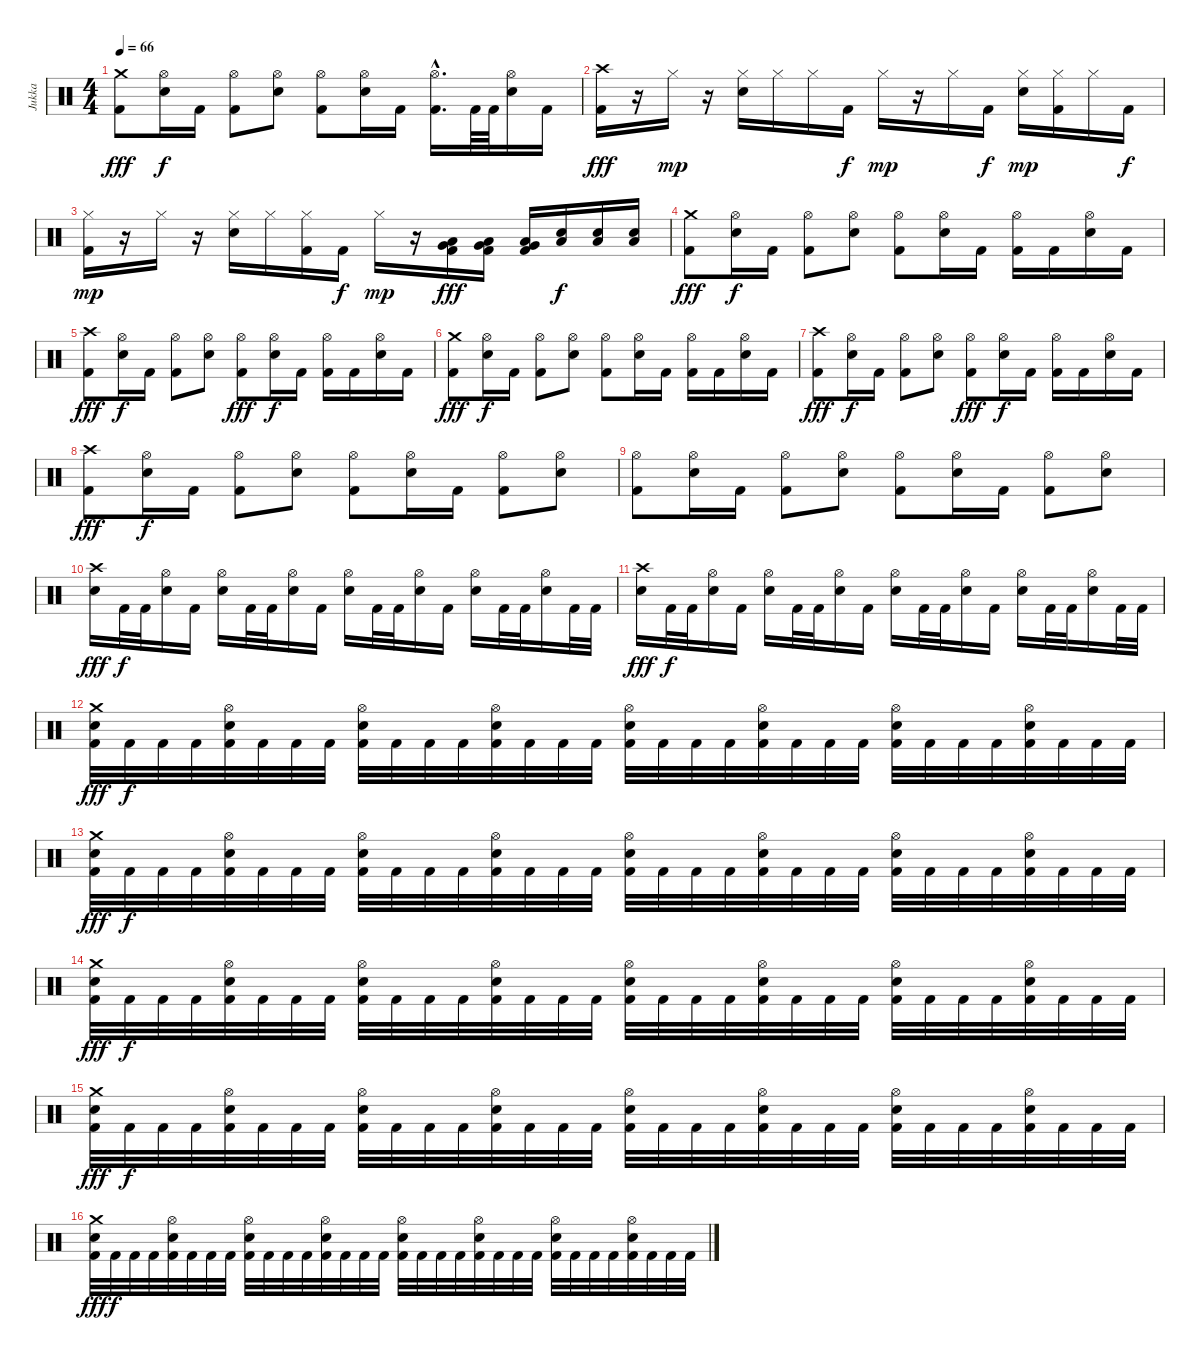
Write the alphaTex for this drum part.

\track ("Jukka" "Jukka") {instrument percussion}
\staff {score}
\articulation defaults
\ts (4 4)
\tempo 66
\clef neutral
\ks c
("Kick (hit) 2" "Crash medium (hit)").8{dy fff} ("Electric Snare (hit)" "Hi-Hat (open)").16{dy f} "Kick (hit) 2".16 ("Kick (hit) 2" "Hi-Hat (open)").8 ("Electric Snare (hit)" "Hi-Hat (open)").8 ("Kick (hit) 2" "Hi-Hat (open)").8 ("Electric Snare (hit)" "Hi-Hat (open)").16 "Kick (hit) 2".16 ("Kick (hit) 2"{hac} "Hi-Hat (open)"{hac}).16{d} "Kick (hit) 2".64 "Kick (hit) 2".64 ("Electric Snare (hit)" "Hi-Hat (open)").16 "Kick (hit) 2".16 |
("Kick (hit) 2" "Crash high (hit)").16{dy fff} r.16 "Hi-Hat (closed)".16{dy mp} r.16 ("Electric Snare (hit)" "Hi-Hat (closed)").16 "Hi-Hat (closed)".16 "Hi-Hat (closed)".16 "Kick (hit) 2".16{dy f} "Hi-Hat (closed)".16{dy mp} r.16 "Hi-Hat (closed)".16 "Kick (hit) 2".16{dy f} ("Electric Snare (hit)" "Hi-Hat (closed)").16{dy mp} ("Kick (hit) 2" "Hi-Hat (closed)").16 "Hi-Hat (closed)".16 "Kick (hit) 2".16{dy f} |
("Kick (hit) 2" "Hi-Hat (closed)").16{dy mp} r.16 "Hi-Hat (closed)".16 r.16 ("Electric Snare (hit)" "Hi-Hat (closed)").16 "Hi-Hat (closed)".16 ("Kick (hit) 2" "Hi-Hat (closed)").16 "Kick (hit) 2".16{dy f} "Hi-Hat (closed)".16{dy mp} r.16 ("Kick (hit) 2" "Very Low Tom (hit)" "Low Floor Tom (hit)").16{dy fff} ("Kick (hit) 2" "Very Low Tom (hit)" "Low Floor Tom (hit)").16 ("Kick (hit) 2" "Very Low Tom (hit)" "Low Floor Tom (hit)").16 ("Electric Snare (hit)" "Low Floor Tom (hit)").16{dy f} ("Electric Snare (hit)" "Low Floor Tom (hit)").16 ("Electric Snare (hit)" "Low Floor Tom (hit)").16 |
("Kick (hit) 2" "Crash medium (hit)").8{dy fff} ("Electric Snare (hit)" "Hi-Hat (open)").16{dy f} "Kick (hit) 2".16 ("Kick (hit) 2" "Hi-Hat (open)").8 ("Electric Snare (hit)" "Hi-Hat (open)").8 ("Kick (hit) 2" "Hi-Hat (open)").8 ("Electric Snare (hit)" "Hi-Hat (open)").16 "Kick (hit) 2".16 ("Kick (hit) 2" "Hi-Hat (open)").16 "Kick (hit) 2".16 ("Electric Snare (hit)" "Hi-Hat (open)").16 "Kick (hit) 2".16 |
("Kick (hit) 2" "Crash high (hit)").8{dy fff} ("Electric Snare (hit)" "Hi-Hat (open)").16{dy f} "Kick (hit) 2".16 ("Kick (hit) 2" "Hi-Hat (open)").8 ("Electric Snare (hit)" "Hi-Hat (open)").8 ("Kick (hit) 2" "Hi-Hat (open)").8{dy fff} ("Electric Snare (hit)" "Hi-Hat (open)").16{dy f} "Kick (hit) 2".16 ("Kick (hit) 2" "Hi-Hat (open)").16 "Kick (hit) 2".16 ("Electric Snare (hit)" "Hi-Hat (open)").16 "Kick (hit) 2".16 |
("Kick (hit) 2" "Crash medium (hit)").8{dy fff} ("Electric Snare (hit)" "Hi-Hat (open)").16{dy f} "Kick (hit) 2".16 ("Kick (hit) 2" "Hi-Hat (open)").8 ("Electric Snare (hit)" "Hi-Hat (open)").8 ("Kick (hit) 2" "Hi-Hat (open)").8 ("Electric Snare (hit)" "Hi-Hat (open)").16 "Kick (hit) 2".16 ("Kick (hit) 2" "Hi-Hat (open)").16 "Kick (hit) 2".16 ("Electric Snare (hit)" "Hi-Hat (open)").16 "Kick (hit) 2".16 |
("Kick (hit) 2" "Crash high (hit)").8{dy fff} ("Electric Snare (hit)" "Hi-Hat (open)").16{dy f} "Kick (hit) 2".16 ("Kick (hit) 2" "Hi-Hat (open)").8 ("Electric Snare (hit)" "Hi-Hat (open)").8 ("Kick (hit) 2" "Hi-Hat (open)").8{dy fff} ("Electric Snare (hit)" "Hi-Hat (open)").16{dy f} "Kick (hit) 2".16 ("Kick (hit) 2" "Hi-Hat (open)").16 "Kick (hit) 2".16 ("Electric Snare (hit)" "Hi-Hat (open)").16 "Kick (hit) 2".16 |
("Kick (hit) 2" "Crash high (hit)").8{dy fff} ("Electric Snare (hit)" "Hi-Hat (open)").16{dy f} "Kick (hit) 2".16 ("Kick (hit) 2" "Hi-Hat (open)").8 ("Electric Snare (hit)" "Hi-Hat (open)").8 ("Kick (hit) 2" "Hi-Hat (open)").8 ("Electric Snare (hit)" "Hi-Hat (open)").16 "Kick (hit) 2".16 ("Kick (hit) 2" "Hi-Hat (open)").8 ("Electric Snare (hit)" "Hi-Hat (open)").8 |
("Kick (hit) 2" "Hi-Hat (open)").8 ("Electric Snare (hit)" "Hi-Hat (open)").16 "Kick (hit) 2".16 ("Kick (hit) 2" "Hi-Hat (open)").8 ("Electric Snare (hit)" "Hi-Hat (open)").8 ("Kick (hit) 2" "Hi-Hat (open)").8 ("Electric Snare (hit)" "Hi-Hat (open)").16 "Kick (hit) 2".16 ("Kick (hit) 2" "Hi-Hat (open)").8 ("Electric Snare (hit)" "Hi-Hat (open)").8 |
("Electric Snare (hit)" "Crash high (hit)").16{dy fff} "Kick (hit) 2".32{dy f} "Kick (hit) 2".32 ("Electric Snare (hit)" "Hi-Hat (open)").16 "Kick (hit) 2".16 ("Electric Snare (hit)" "Hi-Hat (open)").16 "Kick (hit) 2".32 "Kick (hit) 2".32 ("Electric Snare (hit)" "Hi-Hat (open)").16 "Kick (hit) 2".16 ("Electric Snare (hit)" "Hi-Hat (open)").16 "Kick (hit) 2".32 "Kick (hit) 2".32 ("Electric Snare (hit)" "Hi-Hat (open)").16 "Kick (hit) 2".16 ("Electric Snare (hit)" "Hi-Hat (open)").16 "Kick (hit) 2".32 "Kick (hit) 2".32 ("Electric Snare (hit)" "Hi-Hat (open)").16 "Kick (hit) 2".32 "Kick (hit) 2".32 |
("Electric Snare (hit)" "Crash high (hit)").16{dy fff} "Kick (hit) 2".32{dy f} "Kick (hit) 2".32 ("Electric Snare (hit)" "Hi-Hat (open)").16 "Kick (hit) 2".16 ("Electric Snare (hit)" "Hi-Hat (open)").16 "Kick (hit) 2".32 "Kick (hit) 2".32 ("Electric Snare (hit)" "Hi-Hat (open)").16 "Kick (hit) 2".16 ("Electric Snare (hit)" "Hi-Hat (open)").16 "Kick (hit) 2".32 "Kick (hit) 2".32 ("Electric Snare (hit)" "Hi-Hat (open)").16 "Kick (hit) 2".16 ("Electric Snare (hit)" "Hi-Hat (open)").16 "Kick (hit) 2".32 "Kick (hit) 2".32 ("Electric Snare (hit)" "Hi-Hat (open)").16 "Kick (hit) 2".32 "Kick (hit) 2".32 |
("Kick (hit) 2" "Electric Snare (hit)" "Crash medium (hit)").32{dy fff} "Kick (hit) 2".32{dy f} "Kick (hit) 2".32 "Kick (hit) 2".32 ("Kick (hit) 2" "Electric Snare (hit)" "Hi-Hat (open)").32 "Kick (hit) 2".32 "Kick (hit) 2".32 "Kick (hit) 2".32 ("Kick (hit) 2" "Electric Snare (hit)" "Hi-Hat (open)").32 "Kick (hit) 2".32 "Kick (hit) 2".32 "Kick (hit) 2".32 ("Kick (hit) 2" "Electric Snare (hit)" "Hi-Hat (open)").32 "Kick (hit) 2".32 "Kick (hit) 2".32 "Kick (hit) 2".32 ("Kick (hit) 2" "Electric Snare (hit)" "Hi-Hat (open)").32 "Kick (hit) 2".32 "Kick (hit) 2".32 "Kick (hit) 2".32 ("Kick (hit) 2" "Electric Snare (hit)" "Hi-Hat (open)").32 "Kick (hit) 2".32 "Kick (hit) 2".32 "Kick (hit) 2".32 ("Kick (hit) 2" "Electric Snare (hit)" "Hi-Hat (open)").32 "Kick (hit) 2".32 "Kick (hit) 2".32 "Kick (hit) 2".32 ("Kick (hit) 2" "Electric Snare (hit)" "Hi-Hat (open)").32 "Kick (hit) 2".32 "Kick (hit) 2".32 "Kick (hit) 2".32 |
("Kick (hit) 2" "Electric Snare (hit)" "Crash medium (hit)").32{dy fff} "Kick (hit) 2".32{dy f} "Kick (hit) 2".32 "Kick (hit) 2".32 ("Kick (hit) 2" "Electric Snare (hit)" "Hi-Hat (open)").32 "Kick (hit) 2".32 "Kick (hit) 2".32 "Kick (hit) 2".32 ("Kick (hit) 2" "Electric Snare (hit)" "Hi-Hat (open)").32 "Kick (hit) 2".32 "Kick (hit) 2".32 "Kick (hit) 2".32 ("Kick (hit) 2" "Electric Snare (hit)" "Hi-Hat (open)").32 "Kick (hit) 2".32 "Kick (hit) 2".32 "Kick (hit) 2".32 ("Kick (hit) 2" "Electric Snare (hit)" "Hi-Hat (open)").32 "Kick (hit) 2".32 "Kick (hit) 2".32 "Kick (hit) 2".32 ("Kick (hit) 2" "Electric Snare (hit)" "Hi-Hat (open)").32 "Kick (hit) 2".32 "Kick (hit) 2".32 "Kick (hit) 2".32 ("Kick (hit) 2" "Electric Snare (hit)" "Hi-Hat (open)").32 "Kick (hit) 2".32 "Kick (hit) 2".32 "Kick (hit) 2".32 ("Kick (hit) 2" "Electric Snare (hit)" "Hi-Hat (open)").32 "Kick (hit) 2".32 "Kick (hit) 2".32 "Kick (hit) 2".32 |
("Kick (hit) 2" "Electric Snare (hit)" "Crash medium (hit)").32{dy fff} "Kick (hit) 2".32{dy f} "Kick (hit) 2".32 "Kick (hit) 2".32 ("Kick (hit) 2" "Electric Snare (hit)" "Hi-Hat (open)").32 "Kick (hit) 2".32 "Kick (hit) 2".32 "Kick (hit) 2".32 ("Kick (hit) 2" "Electric Snare (hit)" "Hi-Hat (open)").32 "Kick (hit) 2".32 "Kick (hit) 2".32 "Kick (hit) 2".32 ("Kick (hit) 2" "Electric Snare (hit)" "Hi-Hat (open)").32 "Kick (hit) 2".32 "Kick (hit) 2".32 "Kick (hit) 2".32 ("Kick (hit) 2" "Electric Snare (hit)" "Hi-Hat (open)").32 "Kick (hit) 2".32 "Kick (hit) 2".32 "Kick (hit) 2".32 ("Kick (hit) 2" "Electric Snare (hit)" "Hi-Hat (open)").32 "Kick (hit) 2".32 "Kick (hit) 2".32 "Kick (hit) 2".32 ("Kick (hit) 2" "Electric Snare (hit)" "Hi-Hat (open)").32 "Kick (hit) 2".32 "Kick (hit) 2".32 "Kick (hit) 2".32 ("Kick (hit) 2" "Electric Snare (hit)" "Hi-Hat (open)").32 "Kick (hit) 2".32 "Kick (hit) 2".32 "Kick (hit) 2".32 |
("Kick (hit) 2" "Electric Snare (hit)" "Crash medium (hit)").32{dy fff} "Kick (hit) 2".32{dy f} "Kick (hit) 2".32 "Kick (hit) 2".32 ("Kick (hit) 2" "Electric Snare (hit)" "Hi-Hat (open)").32 "Kick (hit) 2".32 "Kick (hit) 2".32 "Kick (hit) 2".32 ("Kick (hit) 2" "Electric Snare (hit)" "Hi-Hat (open)").32 "Kick (hit) 2".32 "Kick (hit) 2".32 "Kick (hit) 2".32 ("Kick (hit) 2" "Electric Snare (hit)" "Hi-Hat (open)").32 "Kick (hit) 2".32 "Kick (hit) 2".32 "Kick (hit) 2".32 ("Kick (hit) 2" "Electric Snare (hit)" "Hi-Hat (open)").32 "Kick (hit) 2".32 "Kick (hit) 2".32 "Kick (hit) 2".32 ("Kick (hit) 2" "Electric Snare (hit)" "Hi-Hat (open)").32 "Kick (hit) 2".32 "Kick (hit) 2".32 "Kick (hit) 2".32 ("Kick (hit) 2" "Electric Snare (hit)" "Hi-Hat (open)").32 "Kick (hit) 2".32 "Kick (hit) 2".32 "Kick (hit) 2".32 ("Kick (hit) 2" "Electric Snare (hit)" "Hi-Hat (open)").32 "Kick (hit) 2".32 "Kick (hit) 2".32 "Kick (hit) 2".32 |
("Kick (hit) 2" "Electric Snare (hit)" "Crash medium (hit)").32{dy fff} "Kick (hit) 2".32{dy f} "Kick (hit) 2".32 "Kick (hit) 2".32 ("Kick (hit) 2" "Electric Snare (hit)" "Hi-Hat (open)").32 "Kick (hit) 2".32 "Kick (hit) 2".32 "Kick (hit) 2".32 ("Kick (hit) 2" "Electric Snare (hit)" "Hi-Hat (open)").32 "Kick (hit) 2".32 "Kick (hit) 2".32 "Kick (hit) 2".32 ("Kick (hit) 2" "Electric Snare (hit)" "Hi-Hat (open)").32 "Kick (hit) 2".32 "Kick (hit) 2".32 "Kick (hit) 2".32 ("Kick (hit) 2" "Electric Snare (hit)" "Hi-Hat (open)").32 "Kick (hit) 2".32 "Kick (hit) 2".32 "Kick (hit) 2".32 ("Kick (hit) 2" "Electric Snare (hit)" "Hi-Hat (open)").32 "Kick (hit) 2".32 "Kick (hit) 2".32 "Kick (hit) 2".32 ("Kick (hit) 2" "Electric Snare (hit)" "Hi-Hat (open)").32 "Kick (hit) 2".32 "Kick (hit) 2".32 "Kick (hit) 2".32 ("Kick (hit) 2" "Electric Snare (hit)" "Hi-Hat (open)").32 "Kick (hit) 2".32 "Kick (hit) 2".32 "Kick (hit) 2".32
